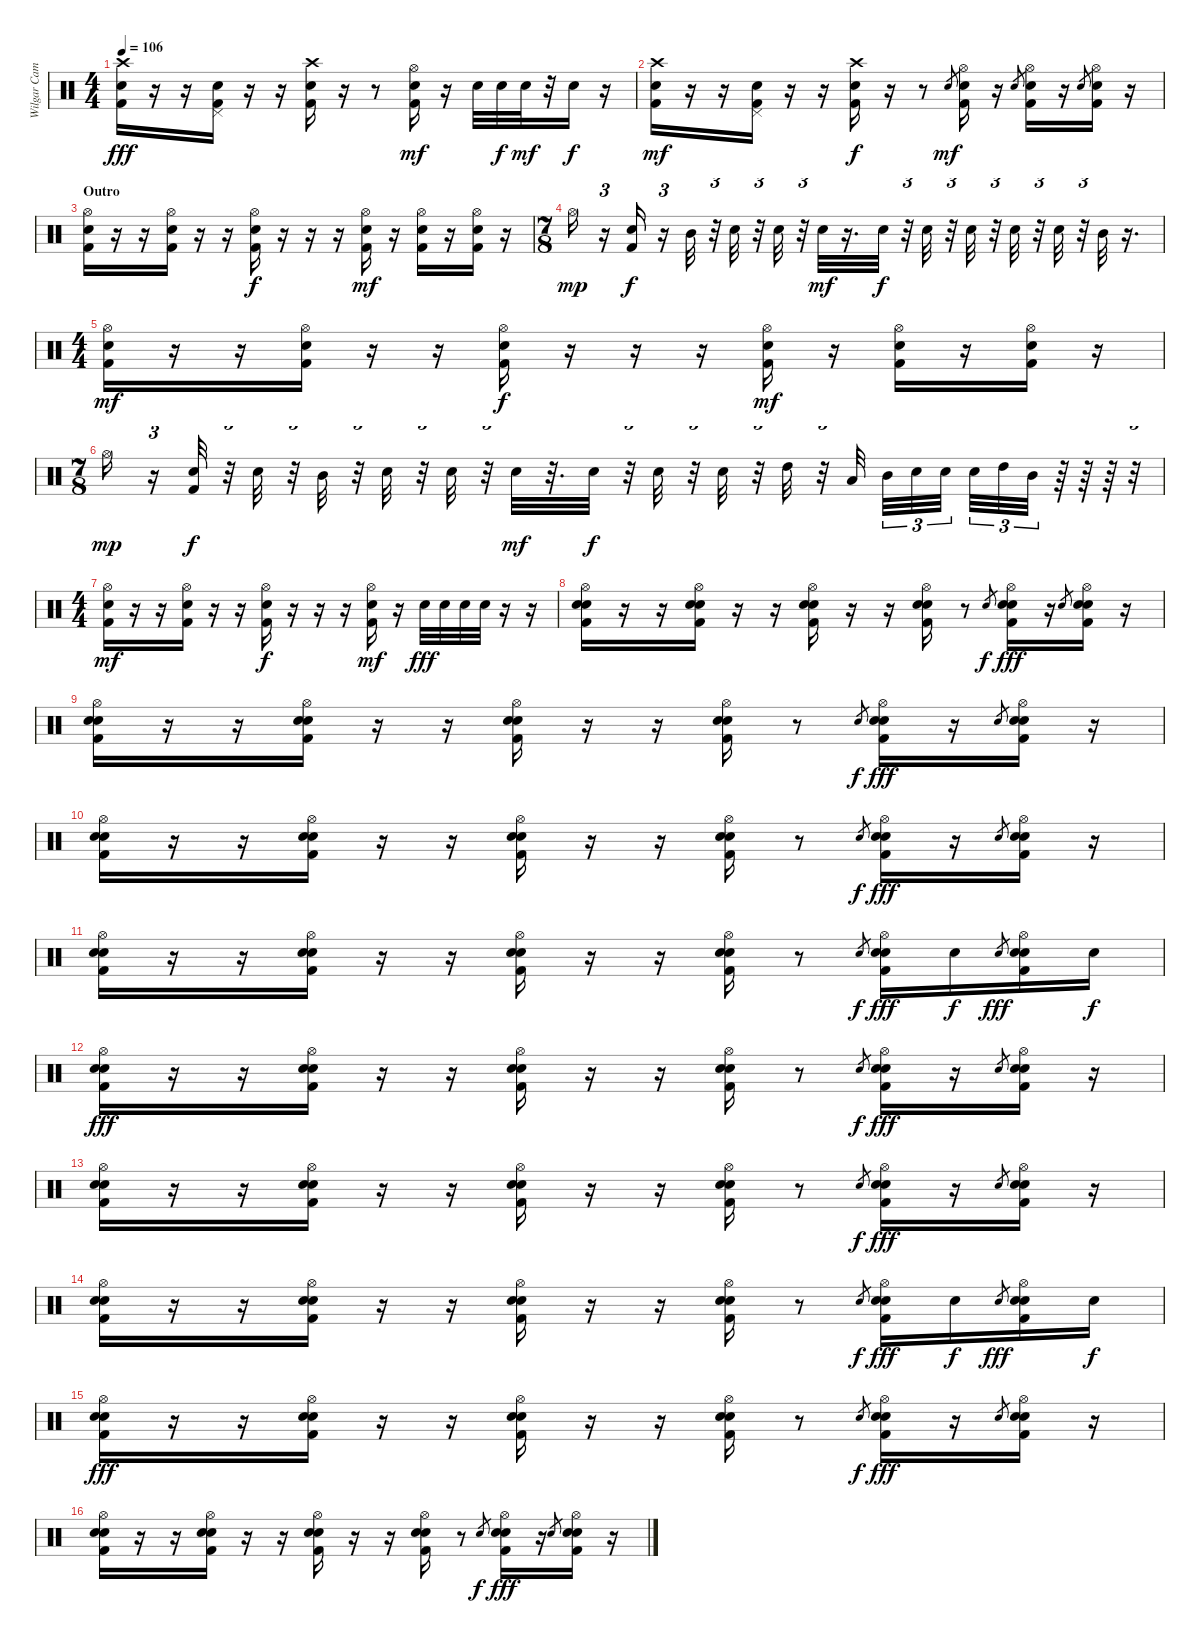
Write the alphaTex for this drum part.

\track ("Wilgar Campbell" "Wilgar Cam") {instrument percussion}
\staff {score}
\articulation defaults
\ts (4 4)
\tempo 106
\clef neutral
\ks c
("Crash high (hit)" "Snare (hit) 2" "Kick (hit) 2").16{dy fff} r.16 r.16 ("Pedal Hi-Hat (hit)" "Snare (hit) 2" "Kick (hit) 2").16 r.16 r.16 ("Crash high (hit)" "Snare (hit) 2" "Kick (hit) 2").16 r.16 r.8 ("Hi-Hat (open)" "Snare (hit) 2" "Kick (hit) 2").16{dy mf} r.16 "Snare (hit) 2".32 "Snare (hit) 2".32{dy f} "Snare (hit) 2".32{dy mf} r.32 "Electric Snare (hit)".16{dy f} r.16 |
("Crash high (hit)" "Snare (hit) 2" "Kick (hit) 2").16{dy mf} r.16 r.16 ("Pedal Hi-Hat (hit)" "Snare (hit) 2" "Kick (hit) 2").16 r.16 r.16 ("Crash high (hit)" "Snare (hit) 2" "Kick (hit) 2").16{dy f} r.16 r.8 "Snare (hit) 2".8{gr dy mf} ("Hi-Hat (open)" "Snare (hit) 2" "Kick (hit) 2").16 r.16 "Snare (hit) 2".8{gr} ("Hi-Hat (open)" "Snare (hit) 2" "Kick (hit) 2").16 r.16 "Snare (hit) 2".8{gr} ("Hi-Hat (open)" "Snare (hit) 2" "Kick (hit) 2").16 r.16 |
\section ("" "Outro")
("Hi-Hat (open)" "Snare (hit) 2" "Kick (hit) 2").16 r.16 r.16 ("Hi-Hat (open)" "Snare (hit) 2" "Kick (hit) 2").16 r.16 r.16 ("Hi-Hat (open)" "Snare (hit) 2" "Kick (hit) 2").16{dy f} r.16 r.16 r.16 ("Hi-Hat (open)" "Snare (hit) 2" "Kick (hit) 2").16{dy mf} r.16 ("Hi-Hat (open)" "Snare (hit) 2" "Kick (hit) 2").16 r.16 ("Hi-Hat (open)" "Snare (hit) 2" "Kick (hit) 2").16 r.16 |
\ts (7 8)
"Hi-Hat (open)".16{dy mp} r.16{tu (3 2)} ("Snare (hit) 2" "Kick (hit) 2").16{dy f} r.16{tu (3 2)} "Mid Tom (hit)".32 r.32{tu (3 2)} "Electric Snare (hit)".32 r.32{tu (3 2)} "Electric Snare (hit)".32 r.32{tu (3 2)} "Snare (hit) 2".32{dy mf} r.16{d} "Snare (hit) 2".32{dy f} r.32{tu (3 2)} "Electric Snare (hit)".32 r.32{tu (3 2)} "Electric Snare (hit)".32 r.32{tu (3 2)} "Electric Snare (hit)".32 r.32{tu (3 2)} "Snare (hit) 2".32 r.32{tu (3 2)} "Mid Tom (hit)".32 r.16{d} |
\ts (4 4)
("Hi-Hat (open)" "Snare (hit) 2" "Kick (hit) 2").16{dy mf} r.16 r.16 ("Hi-Hat (open)" "Snare (hit) 2" "Kick (hit) 2").16 r.16 r.16 ("Hi-Hat (open)" "Snare (hit) 2" "Kick (hit) 2").16{dy f} r.16 r.16 r.16 ("Hi-Hat (open)" "Snare (hit) 2" "Kick (hit) 2").16{dy mf} r.16 ("Hi-Hat (open)" "Snare (hit) 2" "Kick (hit) 2").16 r.16 ("Hi-Hat (open)" "Snare (hit) 2" "Kick (hit) 2").16 r.16 |
\ts (7 8)
"Hi-Hat (open)".16{dy mp} r.16{tu (3 2)} ("Snare (hit) 2" "Kick (hit) 2").32{dy f} r.32{tu (3 2)} "Electric Snare (hit)".32 r.32{tu (3 2)} "Mid Tom (hit)".32 r.32{tu (3 2)} "Electric Snare (hit)".32 r.32{tu (3 2)} "Electric Snare (hit)".32 r.32{tu (3 2)} "Snare (hit) 2".32{dy mf} r.32{d} "Snare (hit) 2".32{dy f} r.32{tu (3 2)} "Electric Snare (hit)".32 r.32{tu (3 2)} "Electric Snare (hit)".32 r.32{tu (3 2)} "High Tom (hit)".32 r.32{tu (3 2)} "Low Tom (hit)".32 "Mid Tom (hit)".32{tu (3 2)} "Electric Snare (hit)".32{tu (3 2)} "Snare (hit) 2".32{tu (3 2)} "Electric Snare (hit)".32{tu (3 2)} "High Tom (hit)".32{tu (3 2)} "Mid Tom (hit)".32{tu (3 2)} r.64 r.64 r.64 r.32{tu (3 2)} |
\ts (4 4)
("Hi-Hat (open)" "Snare (hit) 2" "Kick (hit) 2").16{dy mf} r.16 r.16 ("Hi-Hat (open)" "Snare (hit) 2" "Kick (hit) 2").16 r.16 r.16 ("Hi-Hat (open)" "Snare (hit) 2" "Kick (hit) 2").16{dy f} r.16 r.16 r.16 ("Hi-Hat (open)" "Snare (hit) 2" "Kick (hit) 2").16{dy mf} r.16 "Snare (hit) 2".32{dy fff} "Snare (hit) 2".32 "Snare (hit) 2".32 "Snare (hit) 2".32 r.16 r.16 |
("Hi-Hat (open)" "Snare (hit) 2" "Electric Snare (hit)" "Kick (hit) 2").16 r.16 r.16 ("Hi-Hat (open)" "Snare (hit) 2" "Electric Snare (hit)" "Kick (hit) 2").16 r.16 r.16 ("Hi-Hat (open)" "Snare (hit) 2" "Electric Snare (hit)" "Kick (hit) 2").16 r.16 r.16 ("Hi-Hat (open)" "Snare (hit) 2" "Electric Snare (hit)" "Kick (hit) 2").16 r.8 "Electric Snare (hit)".8{gr dy f} ("Hi-Hat (open)" "Snare (hit) 2" "Electric Snare (hit)" "Kick (hit) 2").16{dy fff} r.16 "Electric Snare (hit)".8{gr} ("Hi-Hat (open)" "Snare (hit) 2" "Electric Snare (hit)" "Kick (hit) 2").16 r.16 |
("Hi-Hat (open)" "Snare (hit) 2" "Electric Snare (hit)" "Kick (hit) 2").16 r.16 r.16 ("Hi-Hat (open)" "Snare (hit) 2" "Electric Snare (hit)" "Kick (hit) 2").16 r.16 r.16 ("Hi-Hat (open)" "Snare (hit) 2" "Electric Snare (hit)" "Kick (hit) 2").16 r.16 r.16 ("Hi-Hat (open)" "Snare (hit) 2" "Electric Snare (hit)" "Kick (hit) 2").16 r.8 "Electric Snare (hit)".8{gr dy f} ("Hi-Hat (open)" "Snare (hit) 2" "Electric Snare (hit)" "Kick (hit) 2").16{dy fff} r.16 "Electric Snare (hit)".8{gr} ("Hi-Hat (open)" "Snare (hit) 2" "Electric Snare (hit)" "Kick (hit) 2").16 r.16 |
("Hi-Hat (open)" "Snare (hit) 2" "Electric Snare (hit)" "Kick (hit) 2").16 r.16 r.16 ("Hi-Hat (open)" "Snare (hit) 2" "Electric Snare (hit)" "Kick (hit) 2").16 r.16 r.16 ("Hi-Hat (open)" "Snare (hit) 2" "Electric Snare (hit)" "Kick (hit) 2").16 r.16 r.16 ("Hi-Hat (open)" "Snare (hit) 2" "Electric Snare (hit)" "Kick (hit) 2").16 r.8 "Electric Snare (hit)".8{gr dy f} ("Hi-Hat (open)" "Snare (hit) 2" "Electric Snare (hit)" "Kick (hit) 2").16{dy fff} r.16 "Electric Snare (hit)".8{gr} ("Hi-Hat (open)" "Snare (hit) 2" "Electric Snare (hit)" "Kick (hit) 2").16 r.16 |
("Hi-Hat (open)" "Snare (hit) 2" "Electric Snare (hit)" "Kick (hit) 2").16 r.16 r.16 ("Hi-Hat (open)" "Snare (hit) 2" "Electric Snare (hit)" "Kick (hit) 2").16 r.16 r.16 ("Hi-Hat (open)" "Snare (hit) 2" "Electric Snare (hit)" "Kick (hit) 2").16 r.16 r.16 ("Hi-Hat (open)" "Snare (hit) 2" "Electric Snare (hit)" "Kick (hit) 2").16 r.8 "Electric Snare (hit)".8{gr dy f} ("Hi-Hat (open)" "Snare (hit) 2" "Electric Snare (hit)" "Kick (hit) 2").16{dy fff} "Electric Snare (hit)".16{dy f} "Electric Snare (hit)".8{gr dy fff} ("Hi-Hat (open)" "Snare (hit) 2" "Electric Snare (hit)" "Kick (hit) 2").16 "Electric Snare (hit)".16{dy f} |
("Hi-Hat (open)" "Snare (hit) 2" "Electric Snare (hit)" "Kick (hit) 2").16{dy fff} r.16 r.16 ("Hi-Hat (open)" "Snare (hit) 2" "Electric Snare (hit)" "Kick (hit) 2").16 r.16 r.16 ("Hi-Hat (open)" "Snare (hit) 2" "Electric Snare (hit)" "Kick (hit) 2").16 r.16 r.16 ("Hi-Hat (open)" "Snare (hit) 2" "Electric Snare (hit)" "Kick (hit) 2").16 r.8 "Electric Snare (hit)".8{gr dy f} ("Hi-Hat (open)" "Snare (hit) 2" "Electric Snare (hit)" "Kick (hit) 2").16{dy fff} r.16 "Electric Snare (hit)".8{gr} ("Hi-Hat (open)" "Snare (hit) 2" "Electric Snare (hit)" "Kick (hit) 2").16 r.16 |
("Hi-Hat (open)" "Snare (hit) 2" "Electric Snare (hit)" "Kick (hit) 2").16 r.16 r.16 ("Hi-Hat (open)" "Snare (hit) 2" "Electric Snare (hit)" "Kick (hit) 2").16 r.16 r.16 ("Hi-Hat (open)" "Snare (hit) 2" "Electric Snare (hit)" "Kick (hit) 2").16 r.16 r.16 ("Hi-Hat (open)" "Snare (hit) 2" "Electric Snare (hit)" "Kick (hit) 2").16 r.8 "Electric Snare (hit)".8{gr dy f} ("Hi-Hat (open)" "Snare (hit) 2" "Electric Snare (hit)" "Kick (hit) 2").16{dy fff} r.16 "Electric Snare (hit)".8{gr} ("Hi-Hat (open)" "Snare (hit) 2" "Electric Snare (hit)" "Kick (hit) 2").16 r.16 |
("Hi-Hat (open)" "Snare (hit) 2" "Electric Snare (hit)" "Kick (hit) 2").16 r.16 r.16 ("Hi-Hat (open)" "Snare (hit) 2" "Electric Snare (hit)" "Kick (hit) 2").16 r.16 r.16 ("Hi-Hat (open)" "Snare (hit) 2" "Electric Snare (hit)" "Kick (hit) 2").16 r.16 r.16 ("Hi-Hat (open)" "Snare (hit) 2" "Electric Snare (hit)" "Kick (hit) 2").16 r.8 "Electric Snare (hit)".8{gr dy f} ("Hi-Hat (open)" "Snare (hit) 2" "Electric Snare (hit)" "Kick (hit) 2").16{dy fff} "Electric Snare (hit)".16{dy f} "Electric Snare (hit)".8{gr dy fff} ("Hi-Hat (open)" "Snare (hit) 2" "Electric Snare (hit)" "Kick (hit) 2").16 "Electric Snare (hit)".16{dy f} |
("Hi-Hat (open)" "Snare (hit) 2" "Electric Snare (hit)" "Kick (hit) 2").16{dy fff} r.16 r.16 ("Hi-Hat (open)" "Snare (hit) 2" "Electric Snare (hit)" "Kick (hit) 2").16 r.16 r.16 ("Hi-Hat (open)" "Snare (hit) 2" "Electric Snare (hit)" "Kick (hit) 2").16 r.16 r.16 ("Hi-Hat (open)" "Snare (hit) 2" "Electric Snare (hit)" "Kick (hit) 2").16 r.8 "Electric Snare (hit)".8{gr dy f} ("Hi-Hat (open)" "Snare (hit) 2" "Electric Snare (hit)" "Kick (hit) 2").16{dy fff} r.16 "Electric Snare (hit)".8{gr} ("Hi-Hat (open)" "Snare (hit) 2" "Electric Snare (hit)" "Kick (hit) 2").16 r.16 |
("Hi-Hat (open)" "Snare (hit) 2" "Electric Snare (hit)" "Kick (hit) 2").16 r.16 r.16 ("Hi-Hat (open)" "Snare (hit) 2" "Electric Snare (hit)" "Kick (hit) 2").16 r.16 r.16 ("Hi-Hat (open)" "Snare (hit) 2" "Electric Snare (hit)" "Kick (hit) 2").16 r.16 r.16 ("Hi-Hat (open)" "Snare (hit) 2" "Electric Snare (hit)" "Kick (hit) 2").16 r.8 "Electric Snare (hit)".8{gr dy f} ("Hi-Hat (open)" "Snare (hit) 2" "Electric Snare (hit)" "Kick (hit) 2").16{dy fff} r.16 "Electric Snare (hit)".8{gr} ("Hi-Hat (open)" "Snare (hit) 2" "Electric Snare (hit)" "Kick (hit) 2").16 r.16
